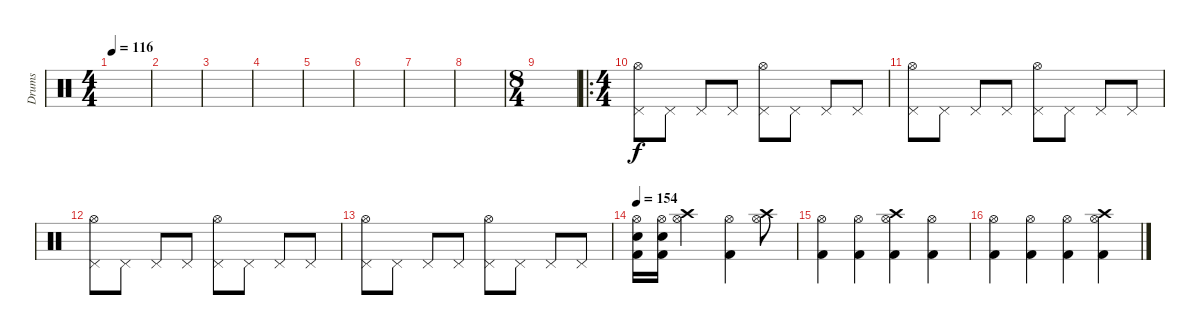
\track ("Drums" "Drums") {instrument percussion}
\staff {score}
\articulation defaults
\ts (4 4)
\tempo 116
\clef neutral
\ks c
|
|
|
|
|
|
|
|
\ts (8 4)
|
\ro
\ts (4 4)
("Pedal Hi-Hat (hit)" "Hi-Hat (open)").8 "Pedal Hi-Hat (hit)".8 "Pedal Hi-Hat (hit)".8 "Pedal Hi-Hat (hit)".8 ("Pedal Hi-Hat (hit)" "Hi-Hat (open)").8 "Pedal Hi-Hat (hit)".8 "Pedal Hi-Hat (hit)".8 "Pedal Hi-Hat (hit)".8 |
("Pedal Hi-Hat (hit)" "Hi-Hat (open)").8 "Pedal Hi-Hat (hit)".8 "Pedal Hi-Hat (hit)".8 "Pedal Hi-Hat (hit)".8 ("Pedal Hi-Hat (hit)" "Hi-Hat (open)").8 "Pedal Hi-Hat (hit)".8 "Pedal Hi-Hat (hit)".8 "Pedal Hi-Hat (hit)".8 |
("Pedal Hi-Hat (hit)" "Hi-Hat (open)").8 "Pedal Hi-Hat (hit)".8 "Pedal Hi-Hat (hit)".8 "Pedal Hi-Hat (hit)".8 ("Pedal Hi-Hat (hit)" "Hi-Hat (open)").8 "Pedal Hi-Hat (hit)".8 "Pedal Hi-Hat (hit)".8 "Pedal Hi-Hat (hit)".8 |
("Pedal Hi-Hat (hit)" "Hi-Hat (open)").8 "Pedal Hi-Hat (hit)".8 "Pedal Hi-Hat (hit)".8 "Pedal Hi-Hat (hit)".8 ("Pedal Hi-Hat (hit)" "Hi-Hat (open)").8 "Pedal Hi-Hat (hit)".8 "Pedal Hi-Hat (hit)".8 "Pedal Hi-Hat (hit)".8 |
\tempo 154
("Hi-Hat (open)" "Snare (hit) 2" "Kick (hit) 2").16 ("Hi-Hat (open)" "Snare (hit) 2" "Kick (hit) 2").16 ("Hi-Hat (open)" "Crash high (hit)").2 ("Hi-Hat (open)" "Kick (hit) 2").4 ("Hi-Hat (open)" "Crash high (hit)").8 |
("Hi-Hat (open)" "Kick (hit) 2").4 ("Hi-Hat (open)" "Kick (hit) 2").4 ("Hi-Hat (open)" "Kick (hit) 2" "Crash high (hit)").4 ("Hi-Hat (open)" "Kick (hit) 2").4 |
("Hi-Hat (open)" "Kick (hit) 2").4 ("Hi-Hat (open)" "Kick (hit) 2").4 ("Hi-Hat (open)" "Kick (hit) 2").4 ("Hi-Hat (open)" "Kick (hit) 2" "Crash high (hit)").4
